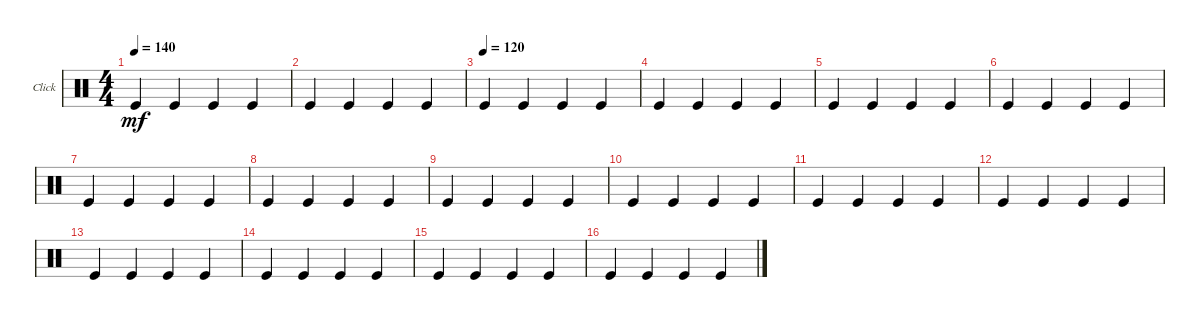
\bracketExtendMode groupsimilarinstruments
\firstSystemTrackNameOrientation horizontal
\otherSystemsTrackNameOrientation horizontal
\track ("Click" "Click") {instrument percussion}
\staff {score}
\articulation defaults
\ts (4 4)
\tempo 140
\clef neutral
\ks c "Kick (hit)".4{dy mf} "Kick (hit)".4 "Kick (hit)".4 "Kick (hit)".4
|
"Kick (hit)".4 "Kick (hit)".4 "Kick (hit)".4 "Kick (hit)".4 |
\tempo (120)
"Kick (hit)".4 "Kick (hit)".4 "Kick (hit)".4 "Kick (hit)".4 |
"Kick (hit)".4 "Kick (hit)".4 "Kick (hit)".4 "Kick (hit)".4 |
"Kick (hit)".4 "Kick (hit)".4 "Kick (hit)".4 "Kick (hit)".4 |
"Kick (hit)".4 "Kick (hit)".4 "Kick (hit)".4 "Kick (hit)".4 |
"Kick (hit)".4 "Kick (hit)".4 "Kick (hit)".4 "Kick (hit)".4 |
"Kick (hit)".4 "Kick (hit)".4 "Kick (hit)".4 "Kick (hit)".4 |
"Kick (hit)".4 "Kick (hit)".4 "Kick (hit)".4 "Kick (hit)".4 |
"Kick (hit)".4 "Kick (hit)".4 "Kick (hit)".4 "Kick (hit)".4 |
"Kick (hit)".4 "Kick (hit)".4 "Kick (hit)".4 "Kick (hit)".4 |
"Kick (hit)".4 "Kick (hit)".4 "Kick (hit)".4 "Kick (hit)".4 |
"Kick (hit)".4 "Kick (hit)".4 "Kick (hit)".4 "Kick (hit)".4 |
"Kick (hit)".4 "Kick (hit)".4 "Kick (hit)".4 "Kick (hit)".4 |
"Kick (hit)".4 "Kick (hit)".4 "Kick (hit)".4 "Kick (hit)".4 |
"Kick (hit)".4 "Kick (hit)".4 "Kick (hit)".4 "Kick (hit)".4
